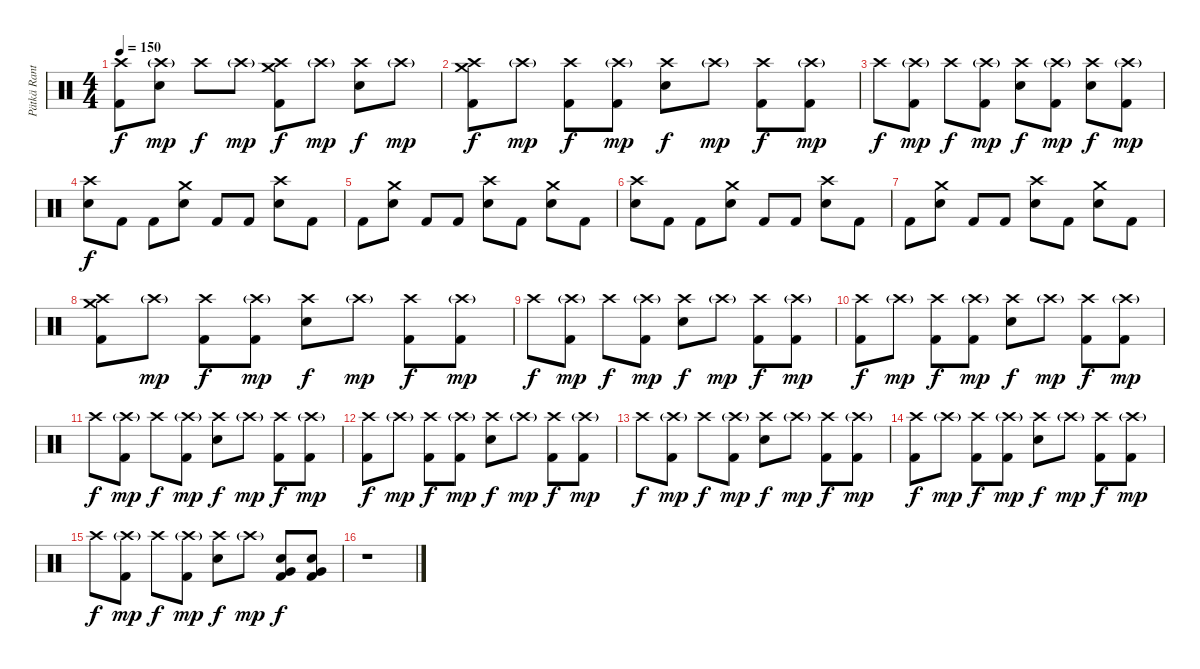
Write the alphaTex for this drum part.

\track ("Pätkä Rantala (Drums)" "Pätkä Rant") {instrument percussion}
\staff {score}
\articulation defaults
\ts (4 4)
\tempo 150
\clef neutral
\ks c
("Crash high (hit)" "Kick (hit) 2").8{dy f} ("Crash high (hit)"{g} "Snare (hit) 2").8{dy mp} "Crash high (hit)".8{dy f} "Crash high (hit)"{g}.8{dy mp} ("Crash medium (hit)" "Crash high (hit)" "Kick (hit) 2").8{dy f} "Crash high (hit)"{g}.8{dy mp} ("Crash high (hit)" "Snare (hit) 2").8{dy f} "Crash high (hit)"{g}.8{dy mp} |
("Crash medium (hit)" "Crash high (hit)" "Kick (hit) 2").8{dy f} "Crash high (hit)"{g}.8{dy mp} ("Crash high (hit)" "Kick (hit) 2").8{dy f} ("Crash high (hit)"{g} "Kick (hit) 2").8{dy mp} ("Crash high (hit)" "Snare (hit) 2").8{dy f} "Crash high (hit)"{g}.8{dy mp} ("Crash high (hit)" "Kick (hit) 2").8{dy f} ("Crash high (hit)"{g} "Kick (hit) 2").8{dy mp} |
"Crash high (hit)".8{dy f} ("Crash high (hit)"{g} "Kick (hit) 2").8{dy mp} "Crash high (hit)".8{dy f} ("Crash high (hit)"{g} "Kick (hit) 2").8{dy mp} ("Crash high (hit)" "Snare (hit) 2").8{dy f} ("Crash high (hit)"{g} "Kick (hit) 2").8{dy mp} ("Crash high (hit)" "Snare (hit) 2").8{dy f} ("Crash high (hit)"{g} "Kick (hit) 2").8{dy mp} |
("Crash high (hit)" "Snare (hit) 2").8{dy f} "Kick (hit) 2".8 "Kick (hit) 2".8 ("Crash medium (hit)" "Snare (hit) 2").8 "Kick (hit) 2".8 "Kick (hit) 2".8 ("Crash high (hit)" "Snare (hit) 2").8 "Kick (hit) 2".8 |
"Kick (hit) 2".8 ("Crash medium (hit)" "Snare (hit) 2").8 "Kick (hit) 2".8 "Kick (hit) 2".8 ("Crash high (hit)" "Snare (hit) 2").8 "Kick (hit) 2".8 ("Crash medium (hit)" "Snare (hit) 2").8 "Kick (hit) 2".8 |
("Crash high (hit)" "Snare (hit) 2").8 "Kick (hit) 2".8 "Kick (hit) 2".8 ("Crash medium (hit)" "Snare (hit) 2").8 "Kick (hit) 2".8 "Kick (hit) 2".8 ("Crash high (hit)" "Snare (hit) 2").8 "Kick (hit) 2".8 |
"Kick (hit) 2".8 ("Crash medium (hit)" "Snare (hit) 2").8 "Kick (hit) 2".8 "Kick (hit) 2".8 ("Crash high (hit)" "Snare (hit) 2").8 "Kick (hit) 2".8 ("Crash medium (hit)" "Snare (hit) 2").8 "Kick (hit) 2".8 |
("Crash medium (hit)" "Crash high (hit)" "Kick (hit) 2").8 "Crash high (hit)"{g}.8{dy mp} ("Crash high (hit)" "Kick (hit) 2").8{dy f} ("Crash high (hit)"{g} "Kick (hit) 2").8{dy mp} ("Crash high (hit)" "Snare (hit) 2").8{dy f} "Crash high (hit)"{g}.8{dy mp} ("Crash high (hit)" "Kick (hit) 2").8{dy f} ("Crash high (hit)"{g} "Kick (hit) 2").8{dy mp} |
"Crash high (hit)".8{dy f} ("Crash high (hit)"{g} "Kick (hit) 2").8{dy mp} "Crash high (hit)".8{dy f} ("Crash high (hit)"{g} "Kick (hit) 2").8{dy mp} ("Crash high (hit)" "Snare (hit) 2").8{dy f} "Crash high (hit)"{g}.8{dy mp} ("Crash high (hit)" "Kick (hit) 2").8{dy f} ("Crash high (hit)"{g} "Kick (hit) 2").8{dy mp} |
("Crash high (hit)" "Kick (hit) 2").8{dy f} "Crash high (hit)"{g}.8{dy mp} ("Crash high (hit)" "Kick (hit) 2").8{dy f} ("Crash high (hit)"{g} "Kick (hit) 2").8{dy mp} ("Crash high (hit)" "Snare (hit) 2").8{dy f} "Crash high (hit)"{g}.8{dy mp} ("Crash high (hit)" "Kick (hit) 2").8{dy f} ("Crash high (hit)"{g} "Kick (hit) 2").8{dy mp} |
"Crash high (hit)".8{dy f} ("Crash high (hit)"{g} "Kick (hit) 2").8{dy mp} "Crash high (hit)".8{dy f} ("Crash high (hit)"{g} "Kick (hit) 2").8{dy mp} ("Crash high (hit)" "Snare (hit) 2").8{dy f} "Crash high (hit)"{g}.8{dy mp} ("Crash high (hit)" "Kick (hit) 2").8{dy f} ("Crash high (hit)"{g} "Kick (hit) 2").8{dy mp} |
("Crash high (hit)" "Kick (hit) 2").8{dy f} "Crash high (hit)"{g}.8{dy mp} ("Crash high (hit)" "Kick (hit) 2").8{dy f} ("Crash high (hit)"{g} "Kick (hit) 2").8{dy mp} ("Crash high (hit)" "Snare (hit) 2").8{dy f} "Crash high (hit)"{g}.8{dy mp} ("Crash high (hit)" "Kick (hit) 2").8{dy f} ("Crash high (hit)"{g} "Kick (hit) 2").8{dy mp} |
"Crash high (hit)".8{dy f} ("Crash high (hit)"{g} "Kick (hit) 2").8{dy mp} "Crash high (hit)".8{dy f} ("Crash high (hit)"{g} "Kick (hit) 2").8{dy mp} ("Crash high (hit)" "Snare (hit) 2").8{dy f} "Crash high (hit)"{g}.8{dy mp} ("Crash high (hit)" "Kick (hit) 2").8{dy f} ("Crash high (hit)"{g} "Kick (hit) 2").8{dy mp} |
("Crash high (hit)" "Kick (hit) 2").8{dy f} "Crash high (hit)"{g}.8{dy mp} ("Crash high (hit)" "Kick (hit) 2").8{dy f} ("Crash high (hit)"{g} "Kick (hit) 2").8{dy mp} ("Crash high (hit)" "Snare (hit) 2").8{dy f} "Crash high (hit)"{g}.8{dy mp} ("Crash high (hit)" "Kick (hit) 2").8{dy f} ("Crash high (hit)"{g} "Kick (hit) 2").8{dy mp} |
"Crash high (hit)".8{dy f} ("Crash high (hit)"{g} "Kick (hit) 2").8{dy mp} "Crash high (hit)".8{dy f} ("Crash high (hit)"{g} "Kick (hit) 2").8{dy mp} ("Crash high (hit)" "Snare (hit) 2").8{dy f} "Crash high (hit)"{g}.8{dy mp} ("Very Low Tom (hit)" "Snare (hit) 2" "Kick (hit) 2").8{dy f} ("Very Low Tom (hit)" "Snare (hit) 2" "Kick (hit) 2").8 |
r.1
